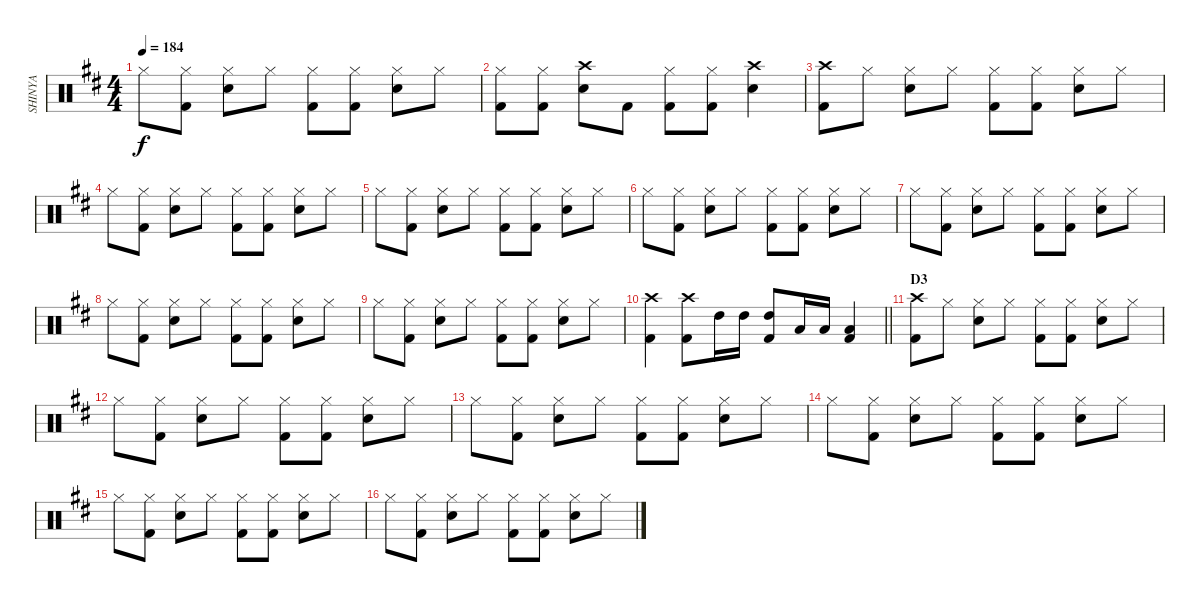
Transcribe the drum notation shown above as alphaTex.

\track ("SHINYA" "SHINYA") {instrument percussion}
\staff {score}
\articulation defaults
\ts (4 4)
\tempo 184
\clef neutral
\ks bminor "Hi-Hat (closed)".8{dy f}
("Hi-Hat (closed)" "Kick (hit) 2").8 ("Hi-Hat (closed)" "Snare (hit) 2").8 "Hi-Hat (closed)".8 ("Hi-Hat (closed)" "Kick (hit) 2").8 ("Hi-Hat (closed)" "Kick (hit) 2").8 ("Hi-Hat (closed)" "Snare (hit) 2").8 "Hi-Hat (closed)".8 |
("Hi-Hat (closed)" "Kick (hit) 2").8 ("Hi-Hat (closed)" "Kick (hit) 2").8 ("Crash high (hit)" "Snare (hit) 2").8 "Kick (hit) 2".8 ("Hi-Hat (closed)" "Kick (hit) 2").8 ("Hi-Hat (closed)" "Kick (hit) 2").8 ("Crash high (hit)" "Snare (hit) 2").4 |
("Crash high (hit)" "Kick (hit) 2").8 "Hi-Hat (closed)".8 ("Hi-Hat (closed)" "Snare (hit) 2").8 "Hi-Hat (closed)".8 ("Hi-Hat (closed)" "Kick (hit) 2").8 ("Hi-Hat (closed)" "Kick (hit) 2").8 ("Hi-Hat (closed)" "Snare (hit) 2").8 "Hi-Hat (closed)".8 |
"Hi-Hat (closed)".8 ("Hi-Hat (closed)" "Kick (hit) 2").8 ("Hi-Hat (closed)" "Snare (hit) 2").8 "Hi-Hat (closed)".8 ("Hi-Hat (closed)" "Kick (hit) 2").8 ("Hi-Hat (closed)" "Kick (hit) 2").8 ("Hi-Hat (closed)" "Snare (hit) 2").8 "Hi-Hat (closed)".8 |
"Hi-Hat (closed)".8 ("Hi-Hat (closed)" "Kick (hit) 2").8 ("Hi-Hat (closed)" "Snare (hit) 2").8 "Hi-Hat (closed)".8 ("Hi-Hat (closed)" "Kick (hit) 2").8 ("Hi-Hat (closed)" "Kick (hit) 2").8 ("Hi-Hat (closed)" "Snare (hit) 2").8 "Hi-Hat (closed)".8 |
"Hi-Hat (closed)".8 ("Hi-Hat (closed)" "Kick (hit) 2").8 ("Hi-Hat (closed)" "Snare (hit) 2").8 "Hi-Hat (closed)".8 ("Hi-Hat (closed)" "Kick (hit) 2").8 ("Hi-Hat (closed)" "Kick (hit) 2").8 ("Hi-Hat (closed)" "Snare (hit) 2").8 "Hi-Hat (closed)".8 |
"Hi-Hat (closed)".8 ("Hi-Hat (closed)" "Kick (hit) 2").8 ("Hi-Hat (closed)" "Snare (hit) 2").8 "Hi-Hat (closed)".8 ("Hi-Hat (closed)" "Kick (hit) 2").8 ("Hi-Hat (closed)" "Kick (hit) 2").8 ("Hi-Hat (closed)" "Snare (hit) 2").8 "Hi-Hat (closed)".8 |
"Hi-Hat (closed)".8 ("Hi-Hat (closed)" "Kick (hit) 2").8 ("Hi-Hat (closed)" "Snare (hit) 2").8 "Hi-Hat (closed)".8 ("Hi-Hat (closed)" "Kick (hit) 2").8 ("Hi-Hat (closed)" "Kick (hit) 2").8 ("Hi-Hat (closed)" "Snare (hit) 2").8 "Hi-Hat (closed)".8 |
"Hi-Hat (closed)".8 ("Hi-Hat (closed)" "Kick (hit) 2").8 ("Hi-Hat (closed)" "Snare (hit) 2").8 "Hi-Hat (closed)".8 ("Hi-Hat (closed)" "Kick (hit) 2").8 ("Hi-Hat (closed)" "Kick (hit) 2").8 ("Hi-Hat (closed)" "Snare (hit) 2").8 "Hi-Hat (closed)".8 |
\barLineRight lightlight
("Crash high (hit)" "Kick (hit) 2").4 ("Crash high (hit)" "Kick (hit) 2").8 "High Tom (hit)".16 "High Tom (hit)".16 ("High Tom (hit)" "Kick (hit) 2").8 "Low Tom (hit)".16 "Low Tom (hit)".16 ("Kick (hit) 2" "Low Tom (hit)").4 |
\section ("" "D3")
("Crash high (hit)" "Kick (hit) 2").8 "Hi-Hat (closed)".8 ("Hi-Hat (closed)" "Snare (hit) 2").8 "Hi-Hat (closed)".8 ("Hi-Hat (closed)" "Kick (hit) 2").8 ("Hi-Hat (closed)" "Kick (hit) 2").8 ("Hi-Hat (closed)" "Snare (hit) 2").8 "Hi-Hat (closed)".8 |
"Hi-Hat (closed)".8 ("Hi-Hat (closed)" "Kick (hit) 2").8 ("Hi-Hat (closed)" "Snare (hit) 2").8 "Hi-Hat (closed)".8 ("Hi-Hat (closed)" "Kick (hit) 2").8 ("Hi-Hat (closed)" "Kick (hit) 2").8 ("Hi-Hat (closed)" "Snare (hit) 2").8 "Hi-Hat (closed)".8 |
"Hi-Hat (closed)".8 ("Hi-Hat (closed)" "Kick (hit) 2").8 ("Hi-Hat (closed)" "Snare (hit) 2").8 "Hi-Hat (closed)".8 ("Hi-Hat (closed)" "Kick (hit) 2").8 ("Hi-Hat (closed)" "Kick (hit) 2").8 ("Hi-Hat (closed)" "Snare (hit) 2").8 "Hi-Hat (closed)".8 |
"Hi-Hat (closed)".8 ("Hi-Hat (closed)" "Kick (hit) 2").8 ("Hi-Hat (closed)" "Snare (hit) 2").8 "Hi-Hat (closed)".8 ("Hi-Hat (closed)" "Kick (hit) 2").8 ("Hi-Hat (closed)" "Kick (hit) 2").8 ("Hi-Hat (closed)" "Snare (hit) 2").8 "Hi-Hat (closed)".8 |
"Hi-Hat (closed)".8 ("Hi-Hat (closed)" "Kick (hit) 2").8 ("Hi-Hat (closed)" "Snare (hit) 2").8 "Hi-Hat (closed)".8 ("Hi-Hat (closed)" "Kick (hit) 2").8 ("Hi-Hat (closed)" "Kick (hit) 2").8 ("Hi-Hat (closed)" "Snare (hit) 2").8 "Hi-Hat (closed)".8 |
"Hi-Hat (closed)".8 ("Hi-Hat (closed)" "Kick (hit) 2").8 ("Hi-Hat (closed)" "Snare (hit) 2").8 "Hi-Hat (closed)".8 ("Hi-Hat (closed)" "Kick (hit) 2").8 ("Hi-Hat (closed)" "Kick (hit) 2").8 ("Hi-Hat (closed)" "Snare (hit) 2").8 "Hi-Hat (closed)".8
